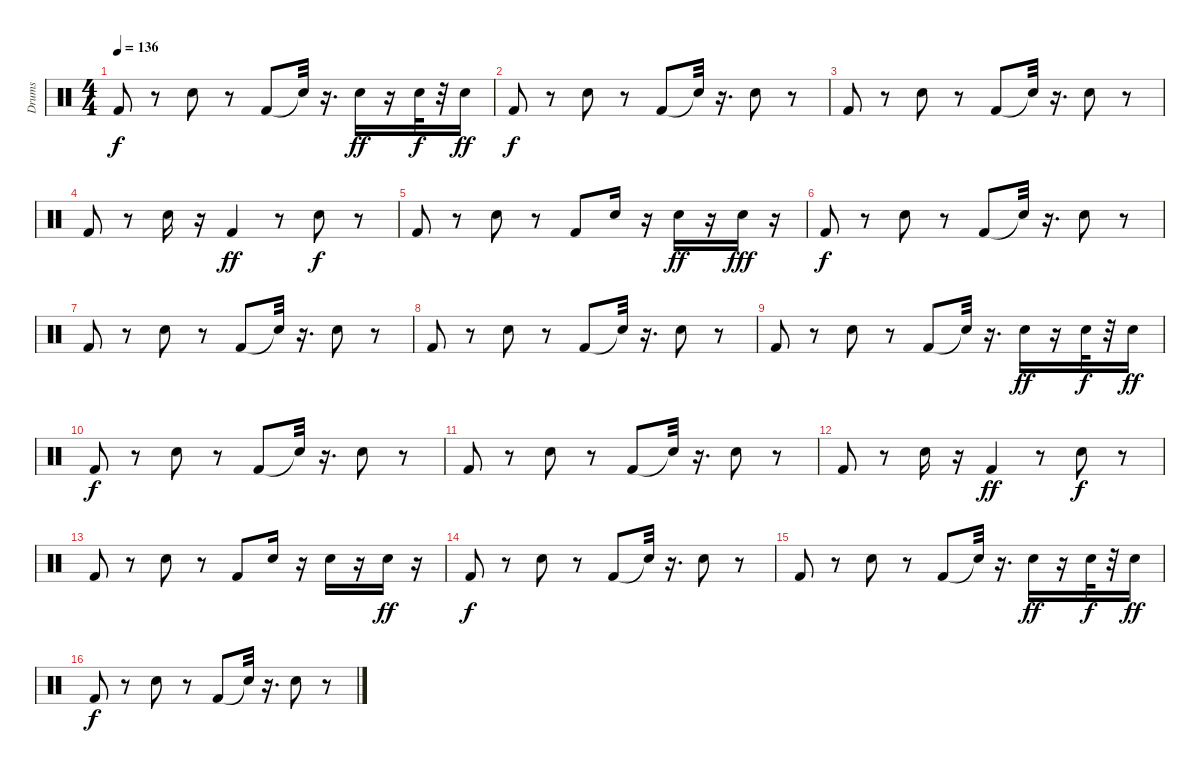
\track ("Drums" "Drums") {instrument percussion}
\staff {score}
\articulation defaults
\ts (4 4)
\tempo 136
\clef neutral
\ks c "Kick (hit) 2".8{dy f}
r.8 "Electric Snare (hit)".8 r.8 "Kick (hit) 2".8 "Snare (hit)"{t}.32 r.16{d} "Electric Snare (hit)".16{dy ff} r.16 "Electric Snare (hit)".32{dy f} r.32 "Electric Snare (hit)".16{dy ff} |
"Kick (hit) 2".8{dy f} r.8 "Electric Snare (hit)".8 r.8 "Kick (hit) 2".8 "Snare (hit)"{t}.32 r.16{d} "Electric Snare (hit)".8 r.8 |
"Kick (hit) 2".8 r.8 "Electric Snare (hit)".8 r.8 "Kick (hit) 2".8 "Snare (hit)"{t}.32 r.16{d} "Electric Snare (hit)".8 r.8 |
"Kick (hit) 2".8 r.8 "Electric Snare (hit)".16 r.16 "Kick (hit) 2".4{dy ff} r.8 "Electric Snare (hit)".8{dy f} r.8 |
"Kick (hit) 2".8 r.8 "Electric Snare (hit)".8 r.8 "Kick (hit) 2".8 "Electric Snare (hit)".16 r.16 "Electric Snare (hit)".16{dy ff} r.16 "Electric Snare (hit)".16{dy fff} r.16 |
"Kick (hit) 2".8{dy f} r.8 "Electric Snare (hit)".8 r.8 "Kick (hit) 2".8 "Snare (hit)"{t}.32 r.16{d} "Electric Snare (hit)".8 r.8 |
"Kick (hit) 2".8 r.8 "Electric Snare (hit)".8 r.8 "Kick (hit) 2".8 "Snare (hit)"{t}.32 r.16{d} "Electric Snare (hit)".8 r.8 |
"Kick (hit) 2".8 r.8 "Electric Snare (hit)".8 r.8 "Kick (hit) 2".8 "Snare (hit)"{t}.32 r.16{d} "Electric Snare (hit)".8 r.8 |
"Kick (hit) 2".8 r.8 "Electric Snare (hit)".8 r.8 "Kick (hit) 2".8 "Snare (hit)"{t}.32 r.16{d} "Electric Snare (hit)".16{dy ff} r.16 "Electric Snare (hit)".32{dy f} r.32 "Electric Snare (hit)".16{dy ff} |
"Kick (hit) 2".8{dy f} r.8 "Electric Snare (hit)".8 r.8 "Kick (hit) 2".8 "Snare (hit)"{t}.32 r.16{d} "Electric Snare (hit)".8 r.8 |
"Kick (hit) 2".8 r.8 "Electric Snare (hit)".8 r.8 "Kick (hit) 2".8 "Snare (hit)"{t}.32 r.16{d} "Electric Snare (hit)".8 r.8 |
"Kick (hit) 2".8 r.8 "Electric Snare (hit)".16 r.16 "Kick (hit) 2".4{dy ff} r.8 "Electric Snare (hit)".8{dy f} r.8 |
"Kick (hit) 2".8 r.8 "Electric Snare (hit)".8 r.8 "Kick (hit) 2".8 "Electric Snare (hit)".16 r.16 "Electric Snare (hit)".16 r.16 "Electric Snare (hit)".16{dy ff} r.16 |
"Kick (hit) 2".8{dy f} r.8 "Electric Snare (hit)".8 r.8 "Kick (hit) 2".8 "Snare (hit)"{t}.32 r.16{d} "Electric Snare (hit)".8 r.8 |
"Kick (hit) 2".8 r.8 "Electric Snare (hit)".8 r.8 "Kick (hit) 2".8 "Snare (hit)"{t}.32 r.16{d} "Electric Snare (hit)".16{dy ff} r.16 "Electric Snare (hit)".32{dy f} r.32 "Electric Snare (hit)".16{dy ff} |
"Kick (hit) 2".8{dy f} r.8 "Electric Snare (hit)".8 r.8 "Kick (hit) 2".8 "Snare (hit)"{t}.32 r.16{d} "Electric Snare (hit)".8 r.8
